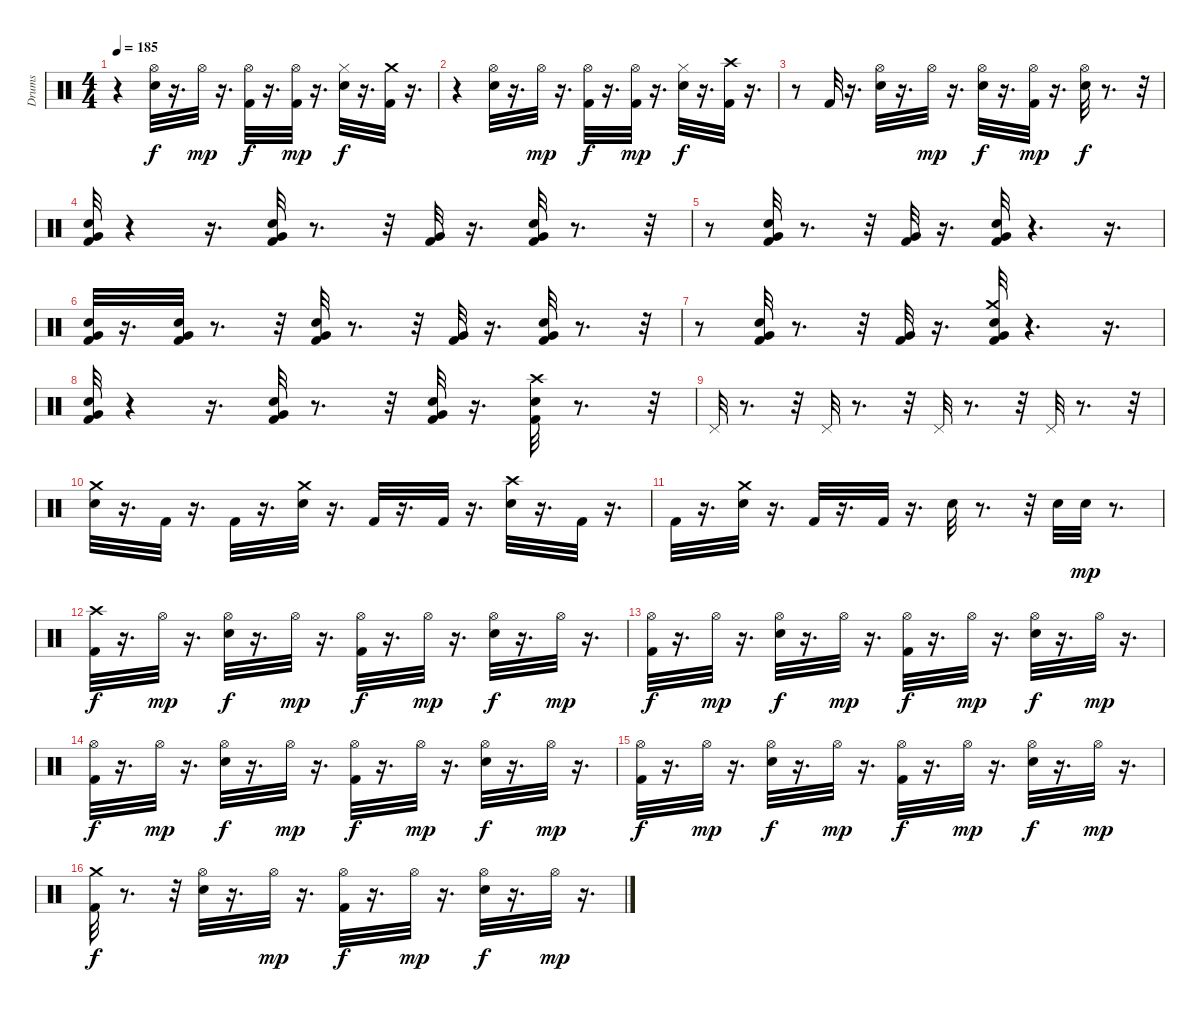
\track ("Drums" "Drums") {instrument percussion}
\staff {score}
\articulation defaults
\ts (4 4)
\tempo 185
\clef neutral
\ks c
r.4{dy f} ("Hi-Hat (open)" "Electric Snare (hit)").32 r.16{d} "Hi-Hat (open)".32{dy mp} r.16{d} ("Hi-Hat (open)" "Kick (hit) 2").32{dy f} r.16{d} ("Hi-Hat (open)" "Kick (hit) 2").32{dy mp} r.16{d} ("Electric Snare (hit)" "Hi-Hat (closed)").32{dy f} r.16{d} ("Crash medium (hit)" "Kick (hit) 2").32 r.16{d} |
r.4 ("Electric Snare (hit)" "Hi-Hat (open)").32 r.16{d} "Hi-Hat (open)".32{dy mp} r.16{d} ("Hi-Hat (open)" "Kick (hit) 2").32{dy f} r.16{d} ("Kick (hit) 2" "Hi-Hat (open)").32{dy mp} r.16{d} ("Hi-Hat (closed)" "Electric Snare (hit)").32{dy f} r.16{d} ("Crash high (hit)" "Kick (hit) 2").32 r.16{d} |
r.8 "Kick (hit) 2".32 r.16{d} ("Hi-Hat (open)" "Electric Snare (hit)").32 r.16{d} "Hi-Hat (open)".32{dy mp} r.16{d} ("Electric Snare (hit)" "Hi-Hat (open)").32{dy f} r.16{d} ("Hi-Hat (open)" "Kick (hit) 2").32{dy mp} r.16{d} ("Hi-Hat (open)" "Electric Snare (hit)").32{dy f} r.8{d} r.32 |
("Very Low Tom (hit)" "Electric Snare (hit)" "Kick (hit) 2").32 r.4 r.16{d} ("Very Low Tom (hit)" "Kick (hit) 2" "Electric Snare (hit)").32 r.8{d} r.32 ("Very Low Tom (hit)" "Kick (hit) 2").32 r.16{d} ("Very Low Tom (hit)" "Kick (hit) 2" "Electric Snare (hit)").32 r.8{d} r.32 |
r.8 ("Kick (hit) 2" "Electric Snare (hit)" "Very Low Tom (hit)").32 r.8{d} r.32 ("Very Low Tom (hit)" "Kick (hit) 2").32 r.16{d} ("Very Low Tom (hit)" "Electric Snare (hit)" "Kick (hit) 2").32 r.4{d} r.16{d} |
("Very Low Tom (hit)" "Kick (hit) 2" "Electric Snare (hit)").32 r.16{d} ("Very Low Tom (hit)" "Kick (hit) 2" "Electric Snare (hit)").32 r.8{d} r.32 ("Very Low Tom (hit)" "Kick (hit) 2" "Electric Snare (hit)").32 r.8{d} r.32 ("Very Low Tom (hit)" "Kick (hit) 2").32 r.16{d} ("Very Low Tom (hit)" "Kick (hit) 2" "Electric Snare (hit)").32 r.8{d} r.32 |
r.8 ("Very Low Tom (hit)" "Kick (hit) 2" "Electric Snare (hit)").32 r.8{d} r.32 ("Very Low Tom (hit)" "Kick (hit) 2").32 r.16{d} ("Very Low Tom (hit)" "Crash medium (hit)" "Kick (hit) 2" "Electric Snare (hit)").32 r.4{d} r.16{d} |
("Very Low Tom (hit)" "Kick (hit) 2" "Electric Snare (hit)").32 r.4 r.16{d} ("Very Low Tom (hit)" "Kick (hit) 2" "Electric Snare (hit)").32 r.8{d} r.32 ("Very Low Tom (hit)" "Kick (hit) 2" "Electric Snare (hit)").32 r.16{d} ("Crash high (hit)" "Kick (hit) 2" "Electric Snare (hit)").32 r.8{d} r.32 |
"Pedal Hi-Hat (hit)".32 r.8{d} r.32 "Pedal Hi-Hat (hit)".32 r.8{d} r.32 "Pedal Hi-Hat (hit)".32 r.8{d} r.32 "Pedal Hi-Hat (hit)".32 r.8{d} r.32 |
("Crash medium (hit)" "Electric Snare (hit)").32 r.16{d} "Kick (hit) 2".32 r.16{d} "Kick (hit) 2".32 r.16{d} ("Crash medium (hit)" "Electric Snare (hit)").32 r.16{d} "Kick (hit) 2".32 r.16{d} "Kick (hit) 2".32 r.16{d} ("Crash high (hit)" "Electric Snare (hit)").32 r.16{d} "Kick (hit) 2".32 r.16{d} |
"Kick (hit) 2".32 r.16{d} ("Crash medium (hit)" "Electric Snare (hit)").32 r.16{d} "Kick (hit) 2".32 r.16{d} "Kick (hit) 2".32 r.16{d} "Electric Snare (hit)".32 r.8{d} r.32 "Electric Snare (hit)".32 "Snare (hit) 2".32{dy mp} r.8{d} |
("Crash high (hit)" "Kick (hit) 2").32{dy f} r.16{d} "Hi-Hat (open)".32{dy mp} r.16{d} ("Hi-Hat (open)" "Electric Snare (hit)").32{dy f} r.16{d} "Hi-Hat (open)".32{dy mp} r.16{d} ("Hi-Hat (open)" "Kick (hit) 2").32{dy f} r.16{d} "Hi-Hat (open)".32{dy mp} r.16{d} ("Hi-Hat (open)" "Electric Snare (hit)").32{dy f} r.16{d} "Hi-Hat (open)".32{dy mp} r.16{d} |
("Hi-Hat (open)" "Kick (hit) 2").32{dy f} r.16{d} "Hi-Hat (open)".32{dy mp} r.16{d} ("Hi-Hat (open)" "Electric Snare (hit)").32{dy f} r.16{d} "Hi-Hat (open)".32{dy mp} r.16{d} ("Hi-Hat (open)" "Kick (hit) 2").32{dy f} r.16{d} "Hi-Hat (open)".32{dy mp} r.16{d} ("Hi-Hat (open)" "Electric Snare (hit)").32{dy f} r.16{d} "Hi-Hat (open)".32{dy mp} r.16{d} |
("Hi-Hat (open)" "Kick (hit) 2").32{dy f} r.16{d} "Hi-Hat (open)".32{dy mp} r.16{d} ("Hi-Hat (open)" "Electric Snare (hit)").32{dy f} r.16{d} "Hi-Hat (open)".32{dy mp} r.16{d} ("Hi-Hat (open)" "Kick (hit) 2").32{dy f} r.16{d} "Hi-Hat (open)".32{dy mp} r.16{d} ("Hi-Hat (open)" "Electric Snare (hit)").32{dy f} r.16{d} "Hi-Hat (open)".32{dy mp} r.16{d} |
("Hi-Hat (open)" "Kick (hit) 2").32{dy f} r.16{d} "Hi-Hat (open)".32{dy mp} r.16{d} ("Hi-Hat (open)" "Electric Snare (hit)").32{dy f} r.16{d} "Hi-Hat (open)".32{dy mp} r.16{d} ("Hi-Hat (open)" "Kick (hit) 2").32{dy f} r.16{d} "Hi-Hat (open)".32{dy mp} r.16{d} ("Hi-Hat (open)" "Electric Snare (hit)").32{dy f} r.16{d} "Hi-Hat (open)".32{dy mp} r.16{d} |
("Crash medium (hit)" "Kick (hit) 2").32{dy f} r.8{d} r.32 ("Hi-Hat (open)" "Electric Snare (hit)").32 r.16{d} "Hi-Hat (open)".32{dy mp} r.16{d} ("Hi-Hat (open)" "Kick (hit) 2").32{dy f} r.16{d} "Hi-Hat (open)".32{dy mp} r.16{d} ("Hi-Hat (open)" "Electric Snare (hit)").32{dy f} r.16{d} "Hi-Hat (open)".32{dy mp} r.16{d}
